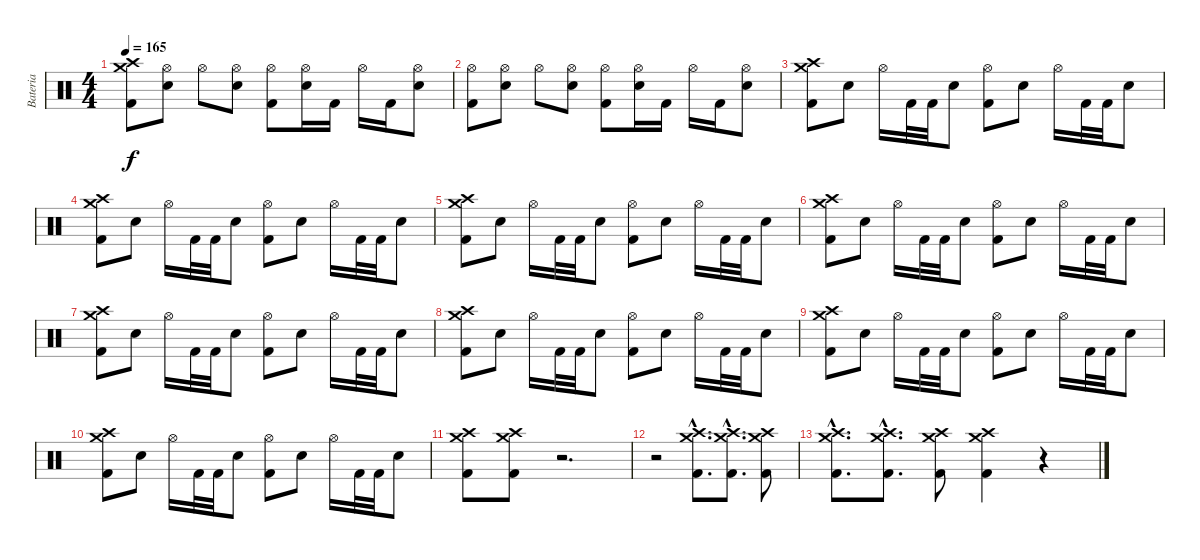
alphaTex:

\track ("Bateria" "Bateria") {instrument percussion}
\staff {score}
\articulation defaults
\ts (4 4)
\tempo 165
\clef neutral
\ks c
("Kick (hit) 2" "Crash medium (hit)" "Crash high (hit)").8{dy f} ("Hi-Hat (open)" "Electric Snare (hit)").8 "Hi-Hat (open)".8 ("Hi-Hat (open)" "Electric Snare (hit)").8 ("Kick (hit) 2" "Hi-Hat (open)").8 ("Hi-Hat (open)" "Electric Snare (hit)").16 "Kick (hit) 2".16 "Hi-Hat (open)".16 "Kick (hit) 2".16 ("Hi-Hat (open)" "Electric Snare (hit)").8 |
("Kick (hit) 2" "Hi-Hat (open)").8 ("Hi-Hat (open)" "Electric Snare (hit)").8 "Hi-Hat (open)".8 ("Hi-Hat (open)" "Electric Snare (hit)").8 ("Kick (hit) 2" "Hi-Hat (open)").8 ("Hi-Hat (open)" "Electric Snare (hit)").16 "Kick (hit) 2".16 "Hi-Hat (open)".16 "Kick (hit) 2".16 ("Hi-Hat (open)" "Electric Snare (hit)").8 |
("Kick (hit) 2" "Crash medium (hit)" "Crash high (hit)").8 "Electric Snare (hit)".8 "Hi-Hat (open)".16 "Kick (hit) 2".32 "Kick (hit) 2".32 "Electric Snare (hit)".8 ("Kick (hit) 2" "Hi-Hat (open)").8 "Electric Snare (hit)".8 "Hi-Hat (open)".16 "Kick (hit) 2".32 "Kick (hit) 2".32 "Electric Snare (hit)".8 |
("Kick (hit) 2" "Crash medium (hit)" "Crash high (hit)").8 "Electric Snare (hit)".8 "Hi-Hat (open)".16 "Kick (hit) 2".32 "Kick (hit) 2".32 "Electric Snare (hit)".8 ("Kick (hit) 2" "Hi-Hat (open)").8 "Electric Snare (hit)".8 "Hi-Hat (open)".16 "Kick (hit) 2".32 "Kick (hit) 2".32 "Electric Snare (hit)".8 |
("Kick (hit) 2" "Crash medium (hit)" "Crash high (hit)").8 "Electric Snare (hit)".8 "Hi-Hat (open)".16 "Kick (hit) 2".32 "Kick (hit) 2".32 "Electric Snare (hit)".8 ("Kick (hit) 2" "Hi-Hat (open)").8 "Electric Snare (hit)".8 "Hi-Hat (open)".16 "Kick (hit) 2".32 "Kick (hit) 2".32 "Electric Snare (hit)".8 |
("Kick (hit) 2" "Crash medium (hit)" "Crash high (hit)").8 "Electric Snare (hit)".8 "Hi-Hat (open)".16 "Kick (hit) 2".32 "Kick (hit) 2".32 "Electric Snare (hit)".8 ("Kick (hit) 2" "Hi-Hat (open)").8 "Electric Snare (hit)".8 "Hi-Hat (open)".16 "Kick (hit) 2".32 "Kick (hit) 2".32 "Electric Snare (hit)".8 |
("Kick (hit) 2" "Crash medium (hit)" "Crash high (hit)").8 "Electric Snare (hit)".8 "Hi-Hat (open)".16 "Kick (hit) 2".32 "Kick (hit) 2".32 "Electric Snare (hit)".8 ("Kick (hit) 2" "Hi-Hat (open)").8 "Electric Snare (hit)".8 "Hi-Hat (open)".16 "Kick (hit) 2".32 "Kick (hit) 2".32 "Electric Snare (hit)".8 |
("Kick (hit) 2" "Crash medium (hit)" "Crash high (hit)").8 "Electric Snare (hit)".8 "Hi-Hat (open)".16 "Kick (hit) 2".32 "Kick (hit) 2".32 "Electric Snare (hit)".8 ("Kick (hit) 2" "Hi-Hat (open)").8 "Electric Snare (hit)".8 "Hi-Hat (open)".16 "Kick (hit) 2".32 "Kick (hit) 2".32 "Electric Snare (hit)".8 |
("Kick (hit) 2" "Crash medium (hit)" "Crash high (hit)").8 "Electric Snare (hit)".8 "Hi-Hat (open)".16 "Kick (hit) 2".32 "Kick (hit) 2".32 "Electric Snare (hit)".8 ("Kick (hit) 2" "Hi-Hat (open)").8 "Electric Snare (hit)".8 "Hi-Hat (open)".16 "Kick (hit) 2".32 "Kick (hit) 2".32 "Electric Snare (hit)".8 |
("Kick (hit) 2" "Crash medium (hit)" "Crash high (hit)").8 "Electric Snare (hit)".8 "Hi-Hat (open)".16 "Kick (hit) 2".32 "Kick (hit) 2".32 "Electric Snare (hit)".8 ("Kick (hit) 2" "Hi-Hat (open)").8 "Electric Snare (hit)".8 "Hi-Hat (open)".16 "Kick (hit) 2".32 "Kick (hit) 2".32 "Electric Snare (hit)".8 |
("Kick (hit) 2" "Crash medium (hit)" "Crash high (hit)").8 ("Kick (hit) 2" "Crash medium (hit)" "Crash high (hit)").8 r.2{d} |
r.2 ("Kick (hit) 2"{hac} "Crash medium (hit)"{hac} "Crash high (hit)"{hac}).8{d} ("Kick (hit) 2"{hac} "Crash medium (hit)"{hac} "Crash high (hit)"{hac}).8{d} ("Kick (hit) 2" "Crash medium (hit)" "Crash high (hit)").8 |
("Kick (hit) 2"{hac} "Crash medium (hit)"{hac} "Crash high (hit)"{hac}).8{d} ("Kick (hit) 2"{hac} "Crash medium (hit)"{hac} "Crash high (hit)"{hac}).8{d} ("Kick (hit) 2" "Crash medium (hit)" "Crash high (hit)").8 ("Kick (hit) 2" "Crash medium (hit)" "Crash high (hit)").4 r.4
